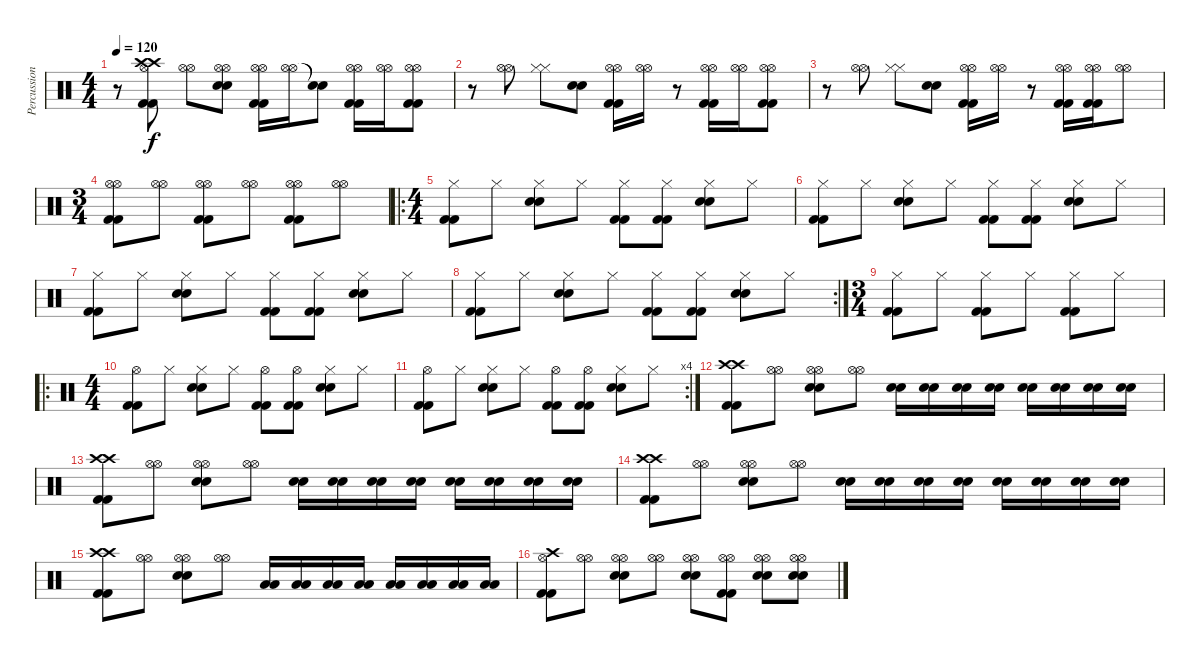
\track ("Percussions" "Percussion") {instrument percussion}
\staff {score}
\articulation defaults
\ts (4 4)
\tempo 120
\clef neutral
\ks c
r.8{dy f} ("Crash high (hit)" "Crash high (hit)" "Hi-Hat (open)" "Kick (hit) 2" "Kick (hit) 2").8 ("Hi-Hat (open)" "Hi-Hat (open)").8 ("Hi-Hat (open)" "Hi-Hat (open)" "Electric Snare (hit)" "Electric Snare (hit)").8 ("Hi-Hat (open)" "Hi-Hat (open)" "Kick (hit) 2" "Kick (hit) 2").16 ("Hi-Hat (open)" "Hi-Hat (open)").16 ("Snare (hit)"{t} "Snare (hit)"{t}).8 ("Hi-Hat (open)" "Hi-Hat (open)" "Kick (hit) 2" "Kick (hit) 2").16 ("Hi-Hat (open)" "Hi-Hat (open)").16 ("Hi-Hat (open)" "Hi-Hat (open)" "Kick (hit) 2" "Kick (hit) 2").8 |
r.8 ("Hi-Hat (open)" "Hi-Hat (open)").8 ("Hi-Hat (closed)" "Hi-Hat (closed)").8 ("Electric Snare (hit)" "Electric Snare (hit)").8 ("Hi-Hat (open)" "Hi-Hat (open)" "Kick (hit) 2" "Kick (hit) 2").16 ("Hi-Hat (open)" "Hi-Hat (open)").16 r.8 ("Hi-Hat (open)" "Hi-Hat (open)" "Kick (hit) 2" "Kick (hit) 2").16 ("Hi-Hat (open)" "Hi-Hat (open)").16 ("Hi-Hat (open)" "Hi-Hat (open)" "Kick (hit) 2" "Kick (hit) 2").8 |
r.8 ("Hi-Hat (open)" "Hi-Hat (open)").8 ("Hi-Hat (closed)" "Hi-Hat (closed)").8 ("Electric Snare (hit)" "Electric Snare (hit)").8 ("Hi-Hat (open)" "Hi-Hat (open)" "Kick (hit) 2" "Kick (hit) 2").16 ("Hi-Hat (open)" "Hi-Hat (open)").16 r.8 ("Hi-Hat (open)" "Hi-Hat (open)" "Kick (hit) 2" "Kick (hit) 2").16 ("Hi-Hat (open)" "Hi-Hat (open)" "Kick (hit) 2" "Kick (hit) 2").16 ("Hi-Hat (open)" "Hi-Hat (open)").8 |
\ts (3 4)
("Hi-Hat (open)" "Hi-Hat (open)" "Kick (hit) 2" "Kick (hit) 2").8 ("Hi-Hat (open)" "Hi-Hat (open)").8 ("Hi-Hat (open)" "Hi-Hat (open)" "Kick (hit) 2" "Kick (hit) 2").8 ("Hi-Hat (open)" "Hi-Hat (open)").8 ("Hi-Hat (open)" "Hi-Hat (open)" "Kick (hit) 2" "Kick (hit) 2").8 ("Hi-Hat (open)" "Hi-Hat (open)").8 |
\ro
\ts (4 4)
("Hi-Hat (closed)" "Kick (hit) 2" "Kick (hit) 2").8 "Hi-Hat (closed)".8 ("Hi-Hat (closed)" "Snare (hit) 2" "Snare (hit) 2").8 "Hi-Hat (closed)".8 ("Hi-Hat (closed)" "Kick (hit) 2" "Kick (hit) 2").8 ("Hi-Hat (closed)" "Kick (hit) 2" "Kick (hit) 2").8 ("Hi-Hat (closed)" "Snare (hit) 2" "Snare (hit) 2").8 "Hi-Hat (closed)".8 |
("Hi-Hat (closed)" "Kick (hit) 2" "Kick (hit) 2").8 "Hi-Hat (closed)".8 ("Hi-Hat (closed)" "Snare (hit) 2" "Snare (hit) 2").8 "Hi-Hat (closed)".8 ("Hi-Hat (closed)" "Kick (hit) 2" "Kick (hit) 2").8 ("Hi-Hat (closed)" "Kick (hit) 2" "Kick (hit) 2").8 ("Hi-Hat (closed)" "Snare (hit) 2" "Snare (hit) 2").8 "Hi-Hat (closed)".8 |
("Hi-Hat (closed)" "Kick (hit) 2" "Kick (hit) 2").8 "Hi-Hat (closed)".8 ("Hi-Hat (closed)" "Snare (hit) 2" "Snare (hit) 2").8 "Hi-Hat (closed)".8 ("Hi-Hat (closed)" "Kick (hit) 2" "Kick (hit) 2").8 ("Hi-Hat (closed)" "Kick (hit) 2" "Kick (hit) 2").8 ("Hi-Hat (closed)" "Snare (hit) 2" "Snare (hit) 2").8 "Hi-Hat (closed)".8 |
\rc 2
("Hi-Hat (closed)" "Kick (hit) 2" "Kick (hit) 2").8 "Hi-Hat (closed)".8 ("Hi-Hat (closed)" "Snare (hit) 2" "Snare (hit) 2").8 "Hi-Hat (closed)".8 ("Hi-Hat (closed)" "Kick (hit) 2" "Kick (hit) 2").8 ("Hi-Hat (closed)" "Kick (hit) 2" "Kick (hit) 2").8 ("Hi-Hat (closed)" "Snare (hit) 2" "Snare (hit) 2").8 "Hi-Hat (closed)".8 |
\ts (3 4)
("Hi-Hat (closed)" "Kick (hit) 2" "Kick (hit) 2").8 "Hi-Hat (closed)".8 ("Hi-Hat (closed)" "Kick (hit) 2" "Kick (hit) 2").8 "Hi-Hat (closed)".8 ("Hi-Hat (closed)" "Kick (hit) 2" "Kick (hit) 2").8 "Hi-Hat (closed)".8 |
\ro
\ts (4 4)
("Hi-Hat (open)" "Kick (hit) 2" "Kick (hit) 2").8 "Hi-Hat (closed)".8 ("Hi-Hat (closed)" "Snare (hit) 2" "Snare (hit) 2").8 "Hi-Hat (closed)".8 ("Hi-Hat (open)" "Kick (hit) 2" "Kick (hit) 2").8 ("Hi-Hat (open)" "Kick (hit) 2" "Kick (hit) 2").8 ("Hi-Hat (closed)" "Snare (hit) 2" "Snare (hit) 2").8 "Hi-Hat (closed)".8 |
\rc 4
("Hi-Hat (open)" "Kick (hit) 2" "Kick (hit) 2").8 "Hi-Hat (closed)".8 ("Hi-Hat (closed)" "Snare (hit) 2" "Snare (hit) 2").8 "Hi-Hat (closed)".8 ("Hi-Hat (open)" "Kick (hit) 2" "Kick (hit) 2").8 ("Hi-Hat (open)" "Kick (hit) 2" "Kick (hit) 2").8 ("Hi-Hat (closed)" "Snare (hit) 2" "Snare (hit) 2").8 "Hi-Hat (closed)".8 |
("Crash high (hit)" "Crash high (hit)" "Kick (hit) 2" "Kick (hit) 2").8 ("Hi-Hat (open)" "Hi-Hat (open)").8 ("Hi-Hat (open)" "Hi-Hat (open)" "Snare (hit) 2" "Snare (hit) 2").8 ("Hi-Hat (open)" "Hi-Hat (open)").8 ("Snare (hit) 2" "Snare (hit) 2").16 ("Snare (hit) 2" "Snare (hit) 2").16 ("Snare (hit) 2" "Snare (hit) 2").16 ("Snare (hit) 2" "Snare (hit) 2").16 ("Snare (hit) 2" "Snare (hit) 2").16 ("Snare (hit) 2" "Snare (hit) 2").16 ("Snare (hit) 2" "Snare (hit) 2").16 ("Snare (hit) 2" "Snare (hit) 2").16 |
("Crash high (hit)" "Crash high (hit)" "Kick (hit) 2" "Kick (hit) 2").8 ("Hi-Hat (open)" "Hi-Hat (open)").8 ("Hi-Hat (open)" "Hi-Hat (open)" "Snare (hit) 2" "Snare (hit) 2").8 ("Hi-Hat (open)" "Hi-Hat (open)").8 ("Snare (hit) 2" "Snare (hit) 2").16 ("Snare (hit) 2" "Snare (hit) 2").16 ("Snare (hit) 2" "Snare (hit) 2").16 ("Snare (hit) 2" "Snare (hit) 2").16 ("Snare (hit) 2" "Snare (hit) 2").16 ("Snare (hit) 2" "Snare (hit) 2").16 ("Snare (hit) 2" "Snare (hit) 2").16 ("Snare (hit) 2" "Snare (hit) 2").16 |
("Crash high (hit)" "Crash high (hit)" "Kick (hit) 2" "Kick (hit) 2").8 ("Hi-Hat (open)" "Hi-Hat (open)").8 ("Hi-Hat (open)" "Hi-Hat (open)" "Snare (hit) 2" "Snare (hit) 2").8 ("Hi-Hat (open)" "Hi-Hat (open)").8 ("Snare (hit) 2" "Snare (hit) 2").16 ("Snare (hit) 2" "Snare (hit) 2").16 ("Snare (hit) 2" "Snare (hit) 2").16 ("Snare (hit) 2" "Snare (hit) 2").16 ("Snare (hit) 2" "Snare (hit) 2").16 ("Snare (hit) 2" "Snare (hit) 2").16 ("Snare (hit) 2" "Snare (hit) 2").16 ("Snare (hit) 2" "Snare (hit) 2").16 |
("Crash high (hit)" "Crash high (hit)" "Kick (hit) 2" "Kick (hit) 2").8 ("Hi-Hat (open)" "Hi-Hat (open)").8 ("Hi-Hat (open)" "Hi-Hat (open)" "Snare (hit) 2" "Snare (hit) 2").8 ("Hi-Hat (open)" "Hi-Hat (open)").8 ("Low Tom (hit)" "Low Tom (hit)").16 ("Low Tom (hit)" "Low Tom (hit)").16 ("Low Tom (hit)" "Low Tom (hit)").16 ("Low Tom (hit)" "Low Tom (hit)").16 ("Low Tom (hit)" "Low Tom (hit)").16 ("Low Tom (hit)" "Low Tom (hit)").16 ("Low Tom (hit)" "Low Tom (hit)").16 ("Low Tom (hit)" "Low Tom (hit)").16 |
("Crash high (hit)" "Hi-Hat (open)" "Kick (hit) 2" "Kick (hit) 2").8 ("Hi-Hat (open)" "Hi-Hat (open)").8 ("Hi-Hat (open)" "Hi-Hat (open)" "Snare (hit) 2" "Snare (hit) 2").8 ("Hi-Hat (open)" "Hi-Hat (open)").8 ("Hi-Hat (open)" "Hi-Hat (open)" "Snare (hit) 2" "Snare (hit) 2").8 ("Hi-Hat (open)" "Hi-Hat (open)" "Kick (hit) 2" "Kick (hit) 2").8 ("Hi-Hat (open)" "Hi-Hat (open)" "Snare (hit) 2" "Snare (hit) 2").8 ("Hi-Hat (open)" "Hi-Hat (open)" "Snare (hit) 2" "Snare (hit) 2").8
